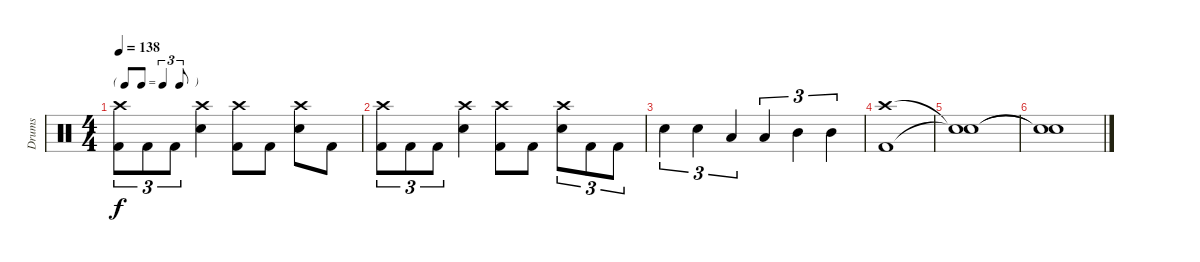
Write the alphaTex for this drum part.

\track ("Drums" "Drums") {instrument percussion}
\staff {score}
\articulation defaults
\ts (4 4)
\tf triplet8th
\tempo 138
\clef neutral
\ks c
("Crash high (hit)" "Kick (hit) 2").8{tu (3 2) dy f} "Kick (hit) 2".8{tu (3 2)} "Kick (hit) 2".8{tu (3 2)} ("Crash high (hit)" "Snare (hit) 2").4 ("Crash high (hit)" "Kick (hit) 2").8 "Kick (hit) 2".8 ("Crash high (hit)" "Snare (hit) 2").8 "Kick (hit) 2".8 |
("Crash high (hit)" "Kick (hit) 2").8{tu (3 2)} "Kick (hit) 2".8{tu (3 2)} "Kick (hit) 2".8{tu (3 2)} ("Crash high (hit)" "Snare (hit) 2").4 ("Crash high (hit)" "Kick (hit) 2").8 "Kick (hit) 2".8 ("Crash high (hit)" "Snare (hit) 2").8{tu (3 2)} "Kick (hit) 2".8{tu (3 2)} "Kick (hit) 2".8{tu (3 2)} |
"Snare (hit) 2".4{tu (3 2)} "Snare (hit) 2".4{tu (3 2)} "Low Tom (hit)".4{tu (3 2)} "Low Tom (hit)".4{tu (3 2)} "Mid Tom (hit)".4{tu (3 2)} "Mid Tom (hit)".4{tu (3 2)} |
("Crash high (hit)" "Kick (hit) 2").1 |
("Snare (hit)"{t} "Snare (hit)"{t}).1 |
("Snare (hit)"{t} "Snare (hit)"{t}).1
